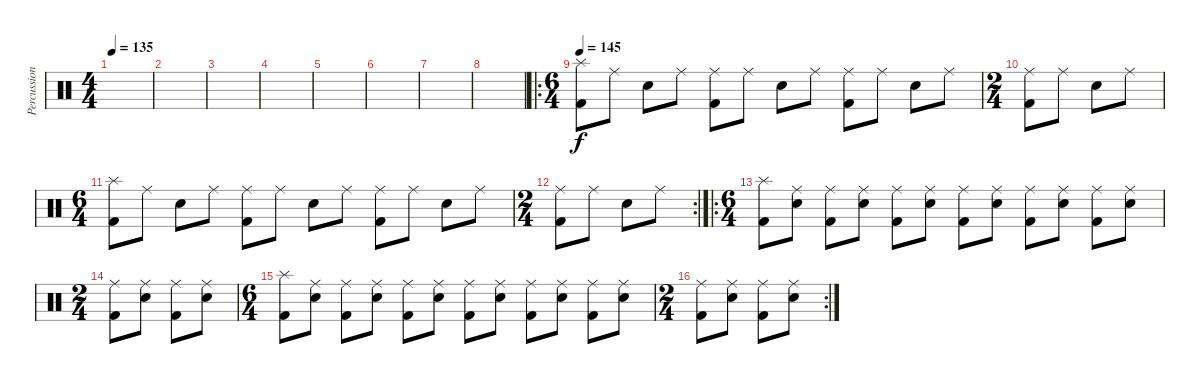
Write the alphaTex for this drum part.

\track ("Percussions" "Percussion") {instrument percussion}
\staff {score}
\articulation defaults
\ts (4 4)
\tempo 135
\clef neutral
\ks c
|
|
|
|
|
|
|
|
\ro
\ts (6 4)
\tempo 145
("Splash (hit)" "Kick (hit) 2").8 "Ride (middle)".8 "Electric Snare (hit)".8 "Ride (middle)".8 ("Ride (middle)" "Kick (hit) 2").8 "Ride (middle)".8 "Electric Snare (hit)".8 "Ride (middle)".8 ("Ride (middle)" "Kick (hit) 2").8 "Ride (middle)".8 "Electric Snare (hit)".8 "Ride (middle)".8 |
\ts (2 4)
("Ride (middle)" "Kick (hit) 2").8 "Ride (middle)".8 "Electric Snare (hit)".8 "Ride (middle)".8 |
\ts (6 4)
("Splash (hit)" "Kick (hit) 2").8 "Ride (middle)".8 "Electric Snare (hit)".8 "Ride (middle)".8 ("Ride (middle)" "Kick (hit) 2").8 "Ride (middle)".8 "Electric Snare (hit)".8 "Ride (middle)".8 ("Ride (middle)" "Kick (hit) 2").8 "Ride (middle)".8 "Electric Snare (hit)".8 "Ride (middle)".8 |
\rc 2
\ts (2 4)
("Ride (middle)" "Kick (hit) 2").8 "Ride (middle)".8 "Electric Snare (hit)".8 "Ride (middle)".8 |
\ro
\ts (6 4)
("Splash (hit)" "Kick (hit) 2").8 ("Ride (middle)" "Electric Snare (hit)").8 ("Ride (middle)" "Kick (hit) 2").8 ("Ride (middle)" "Electric Snare (hit)").8 ("Ride (middle)" "Kick (hit) 2").8 ("Ride (middle)" "Electric Snare (hit)").8 ("Ride (middle)" "Kick (hit) 2").8 ("Ride (middle)" "Electric Snare (hit)").8 ("Ride (middle)" "Kick (hit) 2").8 ("Ride (middle)" "Electric Snare (hit)").8 ("Ride (middle)" "Kick (hit) 2").8 ("Ride (middle)" "Electric Snare (hit)").8 |
\ts (2 4)
("Ride (middle)" "Kick (hit) 2").8 ("Ride (middle)" "Electric Snare (hit)").8 ("Ride (middle)" "Kick (hit) 2").8 ("Ride (middle)" "Electric Snare (hit)").8 |
\ts (6 4)
("Splash (hit)" "Kick (hit) 2").8 ("Ride (middle)" "Electric Snare (hit)").8 ("Ride (middle)" "Kick (hit) 2").8 ("Ride (middle)" "Electric Snare (hit)").8 ("Ride (middle)" "Kick (hit) 2").8 ("Ride (middle)" "Electric Snare (hit)").8 ("Ride (middle)" "Kick (hit) 2").8 ("Ride (middle)" "Electric Snare (hit)").8 ("Ride (middle)" "Kick (hit) 2").8 ("Ride (middle)" "Electric Snare (hit)").8 ("Ride (middle)" "Kick (hit) 2").8 ("Ride (middle)" "Electric Snare (hit)").8 |
\rc 2
\ts (2 4)
("Ride (middle)" "Kick (hit) 2").8 ("Ride (middle)" "Electric Snare (hit)").8 ("Ride (middle)" "Kick (hit) 2").8 ("Ride (middle)" "Electric Snare (hit)").8
